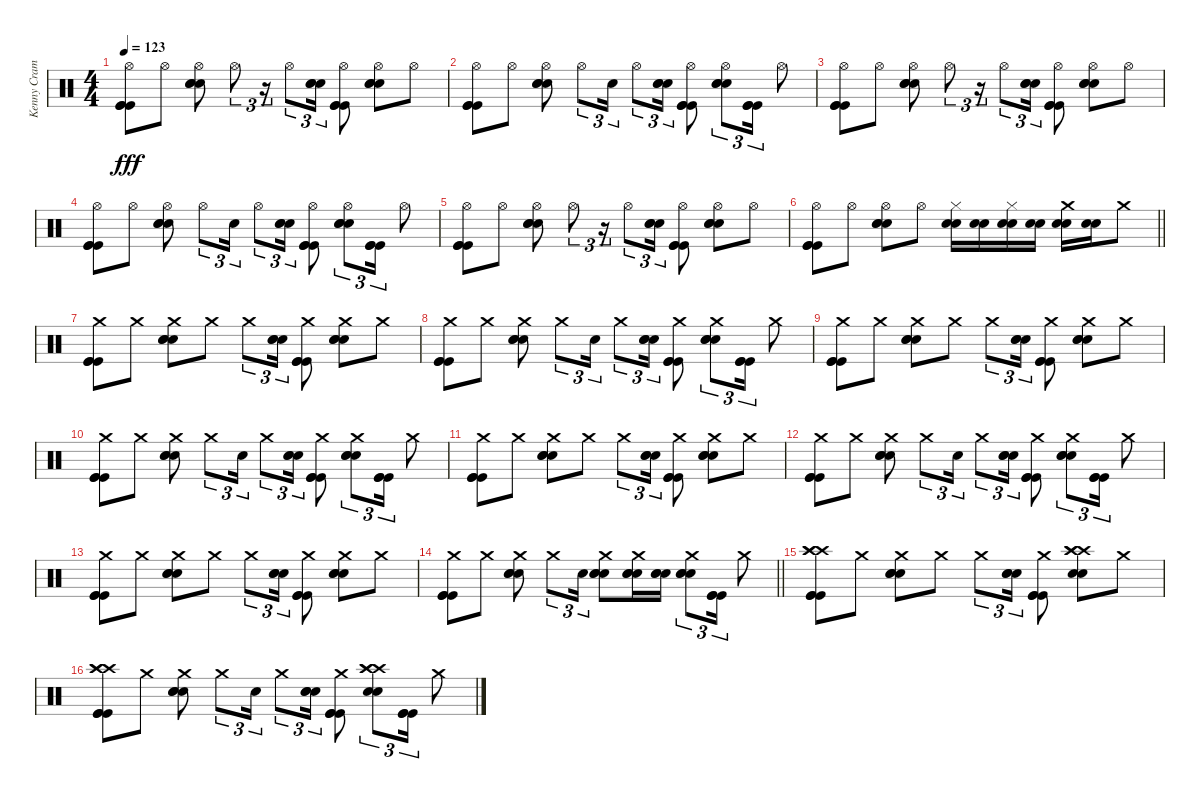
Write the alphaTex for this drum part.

\track ("Kenny Cramme - Drums" "Kenny Cram") {instrument percussion}
\staff {score}
\articulation defaults
\ts (4 4)
\tempo 123
\clef neutral
\ks c
("Hi-Hat (open)" "Kick (hit)" "Kick (hit)" "Kick (hit)").8{dy fff} "Hi-Hat (open)".8 ("Hi-Hat (open)" "Snare (hit) 2" "Snare (hit) 2" "Snare (hit) 2").8 "Hi-Hat (open)".8{tu (3 2)} r.16{tu (3 2)} "Hi-Hat (open)".8{tu (3 2)} ("Snare (hit) 2" "Snare (hit) 2" "Snare (hit) 2").16{tu (3 2)} ("Hi-Hat (open)" "Kick (hit)" "Kick (hit)" "Kick (hit)").8 ("Hi-Hat (open)" "Snare (hit) 2" "Snare (hit) 2" "Snare (hit) 2").8 "Hi-Hat (open)".8 |
("Hi-Hat (open)" "Kick (hit)" "Kick (hit)" "Kick (hit)").8 "Hi-Hat (open)".8 ("Hi-Hat (open)" "Snare (hit) 2" "Snare (hit) 2" "Snare (hit) 2").8 "Hi-Hat (open)".8{tu (3 2)} "Snare (hit) 2".16{tu (3 2)} "Hi-Hat (open)".8{tu (3 2)} ("Snare (hit) 2" "Snare (hit) 2" "Snare (hit) 2").16{tu (3 2)} ("Hi-Hat (open)" "Kick (hit)" "Kick (hit)" "Kick (hit)").8 ("Hi-Hat (open)" "Snare (hit) 2" "Snare (hit) 2" "Snare (hit) 2").8{tu (3 2)} ("Kick (hit)" "Kick (hit)" "Kick (hit)").16{tu (3 2)} "Hi-Hat (open)".8 |
("Hi-Hat (open)" "Kick (hit)" "Kick (hit)" "Kick (hit)").8 "Hi-Hat (open)".8 ("Hi-Hat (open)" "Snare (hit) 2" "Snare (hit) 2" "Snare (hit) 2").8 "Hi-Hat (open)".8{tu (3 2)} r.16{tu (3 2)} "Hi-Hat (open)".8{tu (3 2)} ("Snare (hit) 2" "Snare (hit) 2" "Snare (hit) 2").16{tu (3 2)} ("Hi-Hat (open)" "Kick (hit)" "Kick (hit)" "Kick (hit)").8 ("Hi-Hat (open)" "Snare (hit) 2" "Snare (hit) 2" "Snare (hit) 2").8 "Hi-Hat (open)".8 |
("Hi-Hat (open)" "Kick (hit)" "Kick (hit)" "Kick (hit)").8 "Hi-Hat (open)".8 ("Hi-Hat (open)" "Snare (hit) 2" "Snare (hit) 2" "Snare (hit) 2").8 "Hi-Hat (open)".8{tu (3 2)} "Snare (hit) 2".16{tu (3 2)} "Hi-Hat (open)".8{tu (3 2)} ("Snare (hit) 2" "Snare (hit) 2" "Snare (hit) 2").16{tu (3 2)} ("Hi-Hat (open)" "Kick (hit)" "Kick (hit)" "Kick (hit)").8 ("Hi-Hat (open)" "Snare (hit) 2" "Snare (hit) 2" "Snare (hit) 2").8{tu (3 2)} ("Kick (hit)" "Kick (hit)" "Kick (hit)").16{tu (3 2)} "Hi-Hat (open)".8 |
("Hi-Hat (open)" "Kick (hit)" "Kick (hit)" "Kick (hit)").8 "Hi-Hat (open)".8 ("Hi-Hat (open)" "Snare (hit) 2" "Snare (hit) 2" "Snare (hit) 2").8 "Hi-Hat (open)".8{tu (3 2)} r.16{tu (3 2)} "Hi-Hat (open)".8{tu (3 2)} ("Snare (hit) 2" "Snare (hit) 2" "Snare (hit) 2").16{tu (3 2)} ("Hi-Hat (open)" "Kick (hit)" "Kick (hit)" "Kick (hit)").8 ("Hi-Hat (open)" "Snare (hit) 2" "Snare (hit) 2" "Snare (hit) 2").8 "Hi-Hat (open)".8 |
\barLineRight lightlight
("Hi-Hat (open)" "Kick (hit)" "Kick (hit)" "Kick (hit)").8 "Hi-Hat (open)".8 ("Hi-Hat (open)" "Snare (hit) 2" "Snare (hit) 2" "Snare (hit) 2").8 "Hi-Hat (open)".8 ("Hi-Hat (closed)" "Snare (hit) 2" "Snare (hit) 2").16 ("Snare (hit) 2" "Snare (hit) 2").16 ("Hi-Hat (closed)" "Snare (hit) 2" "Snare (hit) 2").16 ("Snare (hit) 2" "Snare (hit) 2").16 ("Crash medium (hit)" "Snare (hit) 2" "Snare (hit) 2").16 ("Snare (hit) 2" "Snare (hit) 2").16 "Crash medium (hit)".8 |
("Crash medium (hit)" "Kick (hit)" "Kick (hit)" "Kick (hit)").8 "Crash medium (hit)".8 ("Crash medium (hit)" "Snare (hit) 2" "Snare (hit) 2" "Snare (hit) 2").8 "Crash medium (hit)".8 "Crash medium (hit)".8{tu (3 2)} ("Snare (hit) 2" "Snare (hit) 2" "Snare (hit) 2").16{tu (3 2)} ("Crash medium (hit)" "Kick (hit)" "Kick (hit)" "Kick (hit)").8 ("Crash medium (hit)" "Snare (hit) 2" "Snare (hit) 2" "Snare (hit) 2").8 "Crash medium (hit)".8 |
("Crash medium (hit)" "Kick (hit)" "Kick (hit)" "Kick (hit)").8 "Crash medium (hit)".8 ("Crash medium (hit)" "Snare (hit) 2" "Snare (hit) 2" "Snare (hit) 2").8 "Crash medium (hit)".8{tu (3 2)} "Snare (hit) 2".16{tu (3 2)} "Crash medium (hit)".8{tu (3 2)} ("Snare (hit) 2" "Snare (hit) 2" "Snare (hit) 2").16{tu (3 2)} ("Crash medium (hit)" "Kick (hit)" "Kick (hit)" "Kick (hit)").8 ("Crash medium (hit)" "Snare (hit) 2" "Snare (hit) 2" "Snare (hit) 2").8{tu (3 2)} ("Kick (hit)" "Kick (hit)" "Kick (hit)").16{tu (3 2)} "Crash medium (hit)".8 |
("Crash medium (hit)" "Kick (hit)" "Kick (hit)" "Kick (hit)").8 "Crash medium (hit)".8 ("Crash medium (hit)" "Snare (hit) 2" "Snare (hit) 2" "Snare (hit) 2").8 "Crash medium (hit)".8 "Crash medium (hit)".8{tu (3 2)} ("Snare (hit) 2" "Snare (hit) 2" "Snare (hit) 2").16{tu (3 2)} ("Crash medium (hit)" "Kick (hit)" "Kick (hit)" "Kick (hit)").8 ("Crash medium (hit)" "Snare (hit) 2" "Snare (hit) 2" "Snare (hit) 2").8 "Crash medium (hit)".8 |
("Crash medium (hit)" "Kick (hit)" "Kick (hit)" "Kick (hit)").8 "Crash medium (hit)".8 ("Crash medium (hit)" "Snare (hit) 2" "Snare (hit) 2" "Snare (hit) 2").8 "Crash medium (hit)".8{tu (3 2)} "Snare (hit) 2".16{tu (3 2)} "Crash medium (hit)".8{tu (3 2)} ("Snare (hit) 2" "Snare (hit) 2" "Snare (hit) 2").16{tu (3 2)} ("Crash medium (hit)" "Kick (hit)" "Kick (hit)" "Kick (hit)").8 ("Crash medium (hit)" "Snare (hit) 2" "Snare (hit) 2" "Snare (hit) 2").8{tu (3 2)} ("Kick (hit)" "Kick (hit)" "Kick (hit)").16{tu (3 2)} "Crash medium (hit)".8 |
("Crash medium (hit)" "Kick (hit)" "Kick (hit)" "Kick (hit)").8 "Crash medium (hit)".8 ("Crash medium (hit)" "Snare (hit) 2" "Snare (hit) 2" "Snare (hit) 2").8 "Crash medium (hit)".8 "Crash medium (hit)".8{tu (3 2)} ("Snare (hit) 2" "Snare (hit) 2" "Snare (hit) 2").16{tu (3 2)} ("Crash medium (hit)" "Kick (hit)" "Kick (hit)" "Kick (hit)").8 ("Crash medium (hit)" "Snare (hit) 2" "Snare (hit) 2" "Snare (hit) 2").8 "Crash medium (hit)".8 |
("Crash medium (hit)" "Kick (hit)" "Kick (hit)" "Kick (hit)").8 "Crash medium (hit)".8 ("Crash medium (hit)" "Snare (hit) 2" "Snare (hit) 2" "Snare (hit) 2").8 "Crash medium (hit)".8{tu (3 2)} "Snare (hit) 2".16{tu (3 2)} "Crash medium (hit)".8{tu (3 2)} ("Snare (hit) 2" "Snare (hit) 2" "Snare (hit) 2").16{tu (3 2)} ("Crash medium (hit)" "Kick (hit)" "Kick (hit)" "Kick (hit)").8 ("Crash medium (hit)" "Snare (hit) 2" "Snare (hit) 2" "Snare (hit) 2").8{tu (3 2)} ("Kick (hit)" "Kick (hit)" "Kick (hit)").16{tu (3 2)} "Crash medium (hit)".8 |
("Crash medium (hit)" "Kick (hit)" "Kick (hit)" "Kick (hit)").8 "Crash medium (hit)".8 ("Crash medium (hit)" "Snare (hit) 2" "Snare (hit) 2" "Snare (hit) 2").8 "Crash medium (hit)".8 "Crash medium (hit)".8{tu (3 2)} ("Snare (hit) 2" "Snare (hit) 2" "Snare (hit) 2").16{tu (3 2)} ("Crash medium (hit)" "Kick (hit)" "Kick (hit)" "Kick (hit)").8 ("Crash medium (hit)" "Snare (hit) 2" "Snare (hit) 2" "Snare (hit) 2").8 "Crash medium (hit)".8 |
\barLineRight lightlight
("Crash medium (hit)" "Kick (hit)" "Kick (hit)" "Kick (hit)").8 "Crash medium (hit)".8 ("Crash medium (hit)" "Snare (hit) 2" "Snare (hit) 2" "Snare (hit) 2").8 "Crash medium (hit)".8{tu (3 2)} "Snare (hit) 2".16{tu (3 2)} ("Crash medium (hit)" "Snare (hit) 2" "Snare (hit) 2" "Snare (hit) 2").8 ("Crash medium (hit)" "Snare (hit) 2" "Snare (hit) 2" "Snare (hit) 2").16 ("Snare (hit) 2" "Snare (hit) 2" "Snare (hit) 2").16 ("Crash medium (hit)" "Snare (hit) 2" "Snare (hit) 2" "Snare (hit) 2").8{tu (3 2)} ("Kick (hit)" "Kick (hit)" "Kick (hit)").16{tu (3 2)} "Crash medium (hit)".8 |
("Crash high (hit)" "Crash high (hit)" "Crash high (hit)" "Kick (hit)" "Kick (hit)" "Kick (hit)").8 "Crash medium (hit)".8 ("Crash medium (hit)" "Snare (hit) 2" "Snare (hit) 2" "Snare (hit) 2").8 "Crash medium (hit)".8 "Crash medium (hit)".8{tu (3 2)} ("Snare (hit) 2" "Snare (hit) 2" "Snare (hit) 2").16{tu (3 2)} ("Crash medium (hit)" "Kick (hit)" "Kick (hit)" "Kick (hit)").8 ("Crash high (hit)" "Crash high (hit)" "Crash high (hit)" "Snare (hit) 2" "Snare (hit) 2").8 "Crash medium (hit)".8 |
("Crash high (hit)" "Crash high (hit)" "Crash high (hit)" "Kick (hit)" "Kick (hit)" "Kick (hit)").8 "Crash medium (hit)".8 ("Crash medium (hit)" "Snare (hit) 2" "Snare (hit) 2" "Snare (hit) 2").8 "Crash medium (hit)".8{tu (3 2)} "Snare (hit) 2".16{tu (3 2)} "Crash medium (hit)".8{tu (3 2)} ("Snare (hit) 2" "Snare (hit) 2" "Snare (hit) 2").16{tu (3 2)} ("Crash medium (hit)" "Kick (hit)" "Kick (hit)" "Kick (hit)").8 ("Crash high (hit)" "Crash high (hit)" "Crash high (hit)" "Snare (hit) 2" "Snare (hit) 2").8{tu (3 2)} ("Kick (hit)" "Kick (hit)" "Kick (hit)").16{tu (3 2)} "Crash medium (hit)".8
